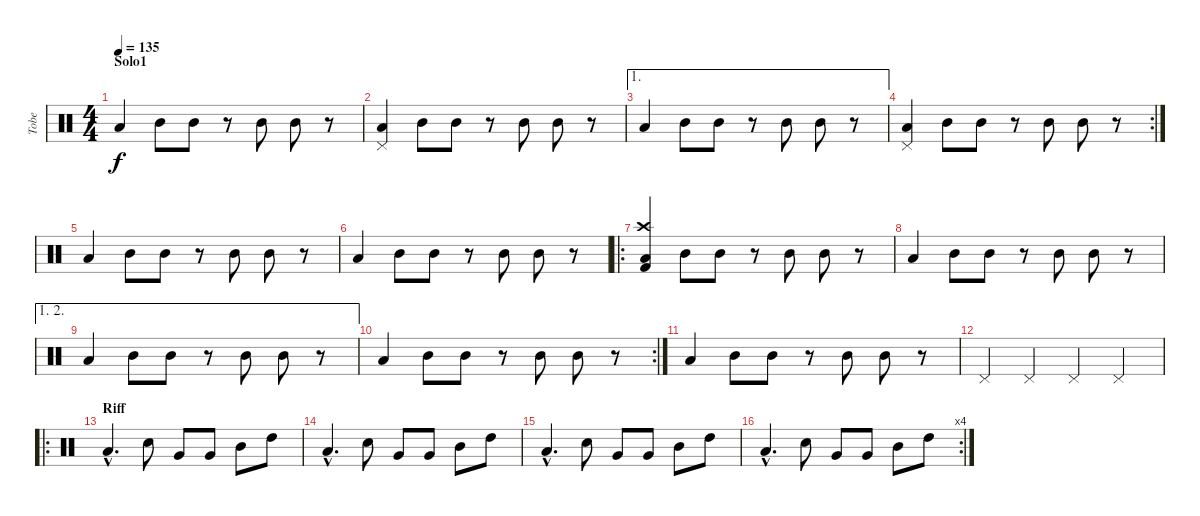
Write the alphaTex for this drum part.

\track ("Tobe" "Tobe") {instrument percussion}
\staff {score}
\articulation defaults
\ts (4 4)
\section ("" "Solo1")
\tempo 135
\clef neutral
\ks c "Low Tom (hit)".4{dy f} "Mid Tom (hit)".8 "Mid Tom (hit)".8
r.8 "Mid Tom (hit)".8 "Mid Tom (hit)".8 r.8 |
("Low Tom (hit)" "Pedal Hi-Hat (hit)").4 "Mid Tom (hit)".8 "Mid Tom (hit)".8 r.8 "Mid Tom (hit)".8 "Mid Tom (hit)".8 r.8 |
\ae 1 "Low Tom (hit)".4 "Mid Tom (hit)".8 "Mid Tom (hit)".8
r.8 "Mid Tom (hit)".8 "Mid Tom (hit)".8 r.8 |
\rc 2
("Low Tom (hit)" "Pedal Hi-Hat (hit)").4 "Mid Tom (hit)".8 "Mid Tom (hit)".8 r.8 "Mid Tom (hit)".8 "Mid Tom (hit)".8 r.8 |
"Low Tom (hit)".4 "Mid Tom (hit)".8 "Mid Tom (hit)".8 r.8 "Mid Tom (hit)".8 "Mid Tom (hit)".8 r.8 |
"Low Tom (hit)".4 "Mid Tom (hit)".8 "Mid Tom (hit)".8 r.8 "Mid Tom (hit)".8 "Mid Tom (hit)".8 r.8 |
\ro
("Low Tom (hit)" "Crash high (hit)" "Kick (hit) 2").4 "Mid Tom (hit)".8 "Mid Tom (hit)".8 r.8 "Mid Tom (hit)".8 "Mid Tom (hit)".8 r.8 |
"Low Tom (hit)".4 "Mid Tom (hit)".8 "Mid Tom (hit)".8 r.8 "Mid Tom (hit)".8 "Mid Tom (hit)".8 r.8 |
\ae (1 2)
"Low Tom (hit)".4 "Mid Tom (hit)".8 "Mid Tom (hit)".8 r.8 "Mid Tom (hit)".8 "Mid Tom (hit)".8 r.8 |
\rc 2 "Low Tom (hit)".4 "Mid Tom (hit)".8 "Mid Tom (hit)".8
r.8 "Mid Tom (hit)".8 "Mid Tom (hit)".8 r.8 |
"Low Tom (hit)".4 "Mid Tom (hit)".8 "Mid Tom (hit)".8 r.8 "Mid Tom (hit)".8 "Mid Tom (hit)".8 r.8 |
"Pedal Hi-Hat (hit)".4 "Pedal Hi-Hat (hit)".4 "Pedal Hi-Hat (hit)".4 "Pedal Hi-Hat (hit)".4 |
\ro
\section ("" "Riff")
"Low Tom (hit)"{hac}.4{d} "Snare (hit) 2".8 "Very Low Tom (hit)".8 "Very Low Tom (hit)".8 "Mid Tom (hit)".8 "High Tom (hit)".8 |
"Low Tom (hit)"{hac}.4{d} "Snare (hit) 2".8 "Very Low Tom (hit)".8 "Very Low Tom (hit)".8 "Mid Tom (hit)".8 "High Tom (hit)".8 |
"Low Tom (hit)"{hac}.4{d} "Snare (hit) 2".8 "Very Low Tom (hit)".8 "Very Low Tom (hit)".8 "Mid Tom (hit)".8 "High Tom (hit)".8 |
\rc 4 "Low Tom (hit)"{hac}.4{d} "Snare (hit) 2".8 "Very Low Tom (hit)".8 "Very Low Tom (hit)".8 "Mid Tom (hit)".8 "High Tom (hit)".8
